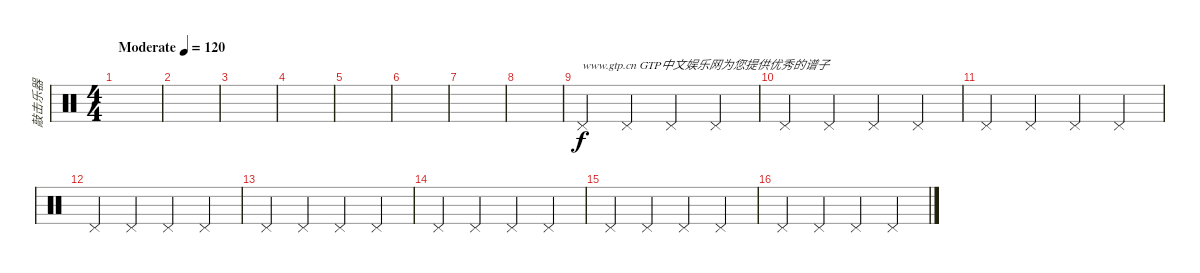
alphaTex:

\track ("敲击乐器" "敲击乐器") {instrument percussion}
\staff {score}
\articulation defaults
\ts (4 4)
\tempo (120 "Moderate")
\clef neutral
\ks c
|
|
|
|
|
|
|
|
"Pedal Hi-Hat (hit)".4{txt "www.gtp.cn GTP中文娱乐网为您提供优秀的谱子"} "Pedal Hi-Hat (hit)".4 "Pedal Hi-Hat (hit)".4 "Pedal Hi-Hat (hit)".4 |
"Pedal Hi-Hat (hit)".4 "Pedal Hi-Hat (hit)".4 "Pedal Hi-Hat (hit)".4 "Pedal Hi-Hat (hit)".4 |
"Pedal Hi-Hat (hit)".4 "Pedal Hi-Hat (hit)".4 "Pedal Hi-Hat (hit)".4 "Pedal Hi-Hat (hit)".4 |
"Pedal Hi-Hat (hit)".4 "Pedal Hi-Hat (hit)".4 "Pedal Hi-Hat (hit)".4 "Pedal Hi-Hat (hit)".4 |
"Pedal Hi-Hat (hit)".4 "Pedal Hi-Hat (hit)".4 "Pedal Hi-Hat (hit)".4 "Pedal Hi-Hat (hit)".4 |
"Pedal Hi-Hat (hit)".4 "Pedal Hi-Hat (hit)".4 "Pedal Hi-Hat (hit)".4 "Pedal Hi-Hat (hit)".4 |
"Pedal Hi-Hat (hit)".4 "Pedal Hi-Hat (hit)".4 "Pedal Hi-Hat (hit)".4 "Pedal Hi-Hat (hit)".4 |
"Pedal Hi-Hat (hit)".4 "Pedal Hi-Hat (hit)".4 "Pedal Hi-Hat (hit)".4 "Pedal Hi-Hat (hit)".4
